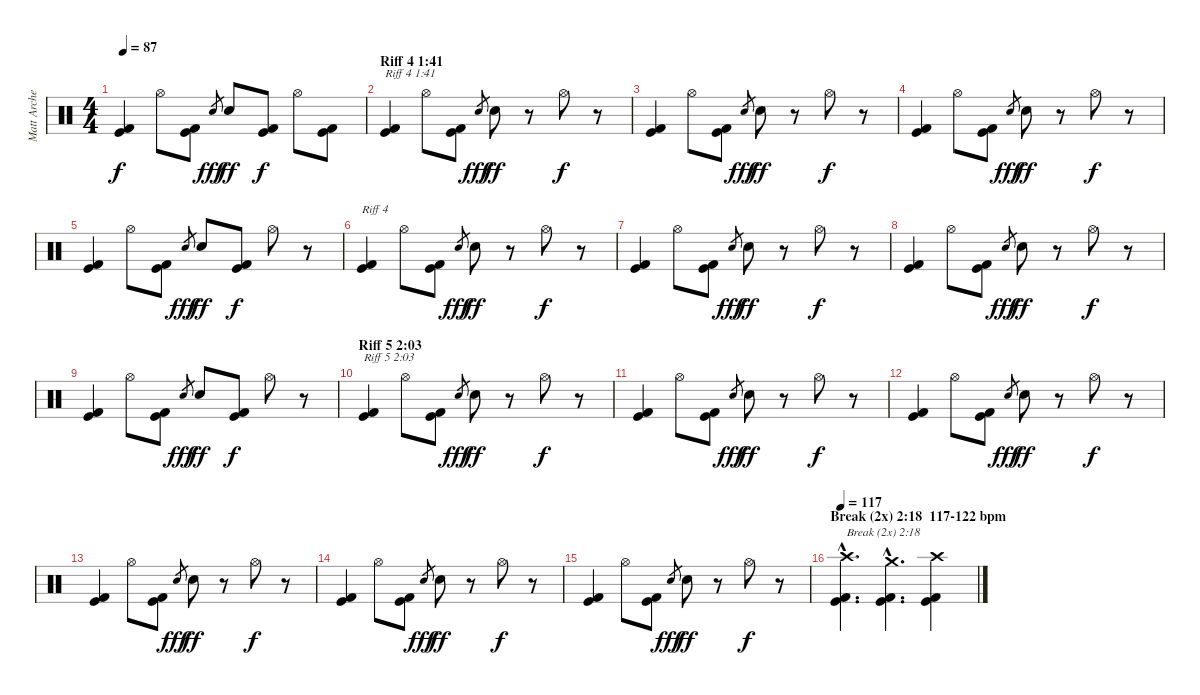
\track ("Matt Archer" "Matt Arche") {instrument percussion}
\staff {score}
\articulation defaults
\ts (4 4)
\tempo 87
\clef neutral
\ks c
("Kick (hit)" "Kick (hit) 2").4{dy f} "Hi-Hat (open)".8 ("Kick (hit)" "Kick (hit) 2").8 "Electric Snare (hit)".8{gr dy fff} "Electric Snare (hit)".8{dy ff} ("Kick (hit)" "Kick (hit) 2").8{dy f} "Hi-Hat (open)".8 ("Kick (hit)" "Kick (hit) 2").8 |
\section ("" "Riff 4 1:41")
("Kick (hit)" "Kick (hit) 2").4{txt "Riff 4 1:41"} "Hi-Hat (open)".8 ("Kick (hit)" "Kick (hit) 2").8 "Electric Snare (hit)".8{gr dy fff} "Electric Snare (hit)".8{dy ff} r.8 "Hi-Hat (open)".8{dy f} r.8 |
("Kick (hit)" "Kick (hit) 2").4 "Hi-Hat (open)".8 ("Kick (hit)" "Kick (hit) 2").8 "Electric Snare (hit)".8{gr dy fff} "Electric Snare (hit)".8{dy ff} r.8 "Hi-Hat (open)".8{dy f} r.8 |
("Kick (hit)" "Kick (hit) 2").4 "Hi-Hat (open)".8 ("Kick (hit)" "Kick (hit) 2").8 "Electric Snare (hit)".8{gr dy fff} "Electric Snare (hit)".8{dy ff} r.8 "Hi-Hat (open)".8{dy f} r.8 |
("Kick (hit)" "Kick (hit) 2").4 "Hi-Hat (open)".8 ("Kick (hit)" "Kick (hit) 2").8 "Electric Snare (hit)".8{gr dy fff} "Electric Snare (hit)".8{dy ff} ("Kick (hit)" "Kick (hit) 2").8{dy f} "Hi-Hat (open)".8 r.8 |
("Kick (hit)" "Kick (hit) 2").4{txt "Riff 4"} "Hi-Hat (open)".8 ("Kick (hit)" "Kick (hit) 2").8 "Electric Snare (hit)".8{gr dy fff} "Electric Snare (hit)".8{dy ff} r.8 "Hi-Hat (open)".8{dy f} r.8 |
("Kick (hit)" "Kick (hit) 2").4 "Hi-Hat (open)".8 ("Kick (hit)" "Kick (hit) 2").8 "Electric Snare (hit)".8{gr dy fff} "Electric Snare (hit)".8{dy ff} r.8 "Hi-Hat (open)".8{dy f} r.8 |
("Kick (hit)" "Kick (hit) 2").4 "Hi-Hat (open)".8 ("Kick (hit)" "Kick (hit) 2").8 "Electric Snare (hit)".8{gr dy fff} "Electric Snare (hit)".8{dy ff} r.8 "Hi-Hat (open)".8{dy f} r.8 |
("Kick (hit)" "Kick (hit) 2").4 "Hi-Hat (open)".8 ("Kick (hit)" "Kick (hit) 2").8 "Electric Snare (hit)".8{gr dy fff} "Electric Snare (hit)".8{dy ff} ("Kick (hit)" "Kick (hit) 2").8{dy f} "Hi-Hat (open)".8 r.8 |
\section ("" "Riff 5 2:03")
("Kick (hit)" "Kick (hit) 2").4{txt "Riff 5 2:03"} "Hi-Hat (open)".8 ("Kick (hit)" "Kick (hit) 2").8 "Electric Snare (hit)".8{gr dy fff} "Electric Snare (hit)".8{dy ff} r.8 "Hi-Hat (open)".8{dy f} r.8 |
("Kick (hit)" "Kick (hit) 2").4 "Hi-Hat (open)".8 ("Kick (hit)" "Kick (hit) 2").8 "Electric Snare (hit)".8{gr dy fff} "Electric Snare (hit)".8{dy ff} r.8 "Hi-Hat (open)".8{dy f} r.8 |
("Kick (hit)" "Kick (hit) 2").4 "Hi-Hat (open)".8 ("Kick (hit)" "Kick (hit) 2").8 "Electric Snare (hit)".8{gr dy fff} "Electric Snare (hit)".8{dy ff} r.8 "Hi-Hat (open)".8{dy f} r.8 |
("Kick (hit)" "Kick (hit) 2").4 "Hi-Hat (open)".8 ("Kick (hit)" "Kick (hit) 2").8 "Electric Snare (hit)".8{gr dy fff} "Electric Snare (hit)".8{dy ff} r.8 "Hi-Hat (open)".8{dy f} r.8 |
("Kick (hit)" "Kick (hit) 2").4 "Hi-Hat (open)".8 ("Kick (hit)" "Kick (hit) 2").8 "Electric Snare (hit)".8{gr dy fff} "Electric Snare (hit)".8{dy ff} r.8 "Hi-Hat (open)".8{dy f} r.8 |
("Kick (hit)" "Kick (hit) 2").4 "Hi-Hat (open)".8 ("Kick (hit)" "Kick (hit) 2").8 "Electric Snare (hit)".8{gr dy fff} "Electric Snare (hit)".8{dy ff} r.8 "Hi-Hat (open)".8{dy f} r.8 |
\section ("" "Break (2x) 2:18  117-122 bpm")
\tempo 117
("Kick (hit)"{hac} "Kick (hit) 2"{hac} "Crash high (hit)"{hac}).4{d txt "Break (2x) 2:18"} ("Kick (hit)"{hac} "Kick (hit) 2"{hac} "Crash medium (hit)"{hac}).4{d} ("Kick (hit)" "Kick (hit) 2" "Crash high (hit)").4
